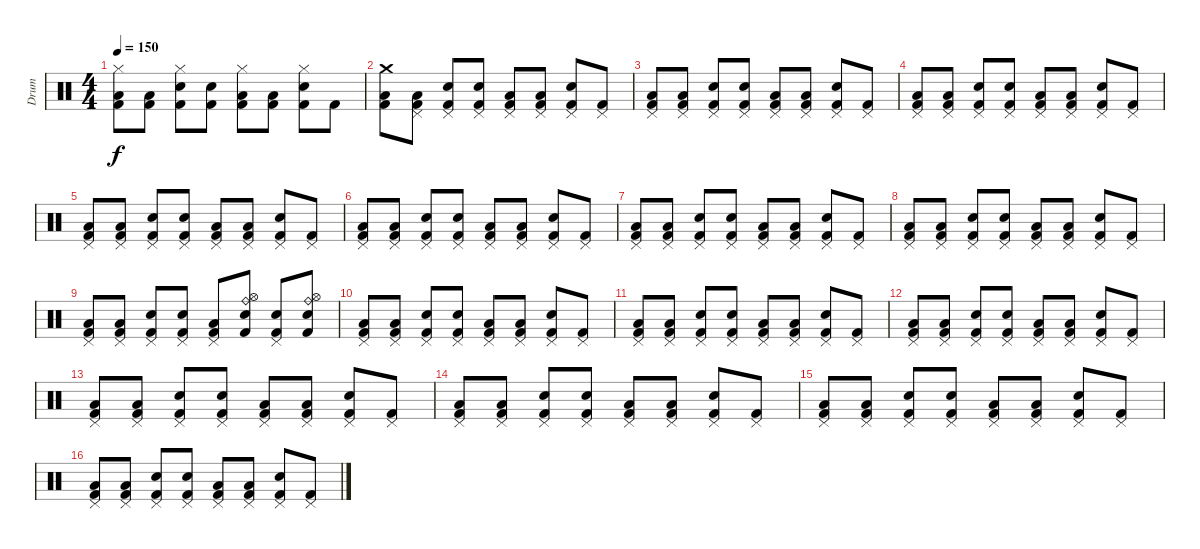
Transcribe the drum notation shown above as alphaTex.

\track ("Drum" "Drum") {instrument percussion}
\staff {score}
\articulation defaults
\ts (4 4)
\tempo 150
\clef neutral
\ks c
("Hi-Hat (closed)" "Low Floor Tom (hit)" "Kick (hit) 2").8{dy f} ("Low Floor Tom (hit)" "Kick (hit) 2").8 ("Hi-Hat (closed)" "Snare (hit) 2" "Kick (hit) 2").8 ("Snare (hit) 2" "Kick (hit) 2").8 ("Hi-Hat (closed)" "Low Floor Tom (hit)" "Kick (hit) 2").8 ("Low Floor Tom (hit)" "Kick (hit) 2").8 ("Hi-Hat (closed)" "Snare (hit) 2" "Kick (hit) 2").8 "Kick (hit) 2".8 |
("Crash medium (hit)" "Low Floor Tom (hit)" "Kick (hit) 2").8 ("Pedal Hi-Hat (hit)" "Low Floor Tom (hit)" "Kick (hit) 2").8 ("Pedal Hi-Hat (hit)" "Snare (hit) 2" "Kick (hit) 2").8 ("Pedal Hi-Hat (hit)" "Snare (hit) 2" "Kick (hit) 2").8 ("Pedal Hi-Hat (hit)" "Low Floor Tom (hit)" "Kick (hit) 2").8 ("Pedal Hi-Hat (hit)" "Low Floor Tom (hit)" "Kick (hit) 2").8 ("Pedal Hi-Hat (hit)" "Snare (hit) 2" "Kick (hit) 2").8 ("Pedal Hi-Hat (hit)" "Kick (hit) 2").8 |
("Pedal Hi-Hat (hit)" "Low Floor Tom (hit)" "Kick (hit) 2").8 ("Pedal Hi-Hat (hit)" "Low Floor Tom (hit)" "Kick (hit) 2").8 ("Pedal Hi-Hat (hit)" "Snare (hit) 2" "Kick (hit) 2").8 ("Pedal Hi-Hat (hit)" "Snare (hit) 2" "Kick (hit) 2").8 ("Pedal Hi-Hat (hit)" "Low Floor Tom (hit)" "Kick (hit) 2").8 ("Pedal Hi-Hat (hit)" "Low Floor Tom (hit)" "Kick (hit) 2").8 ("Pedal Hi-Hat (hit)" "Snare (hit) 2" "Kick (hit) 2").8 ("Pedal Hi-Hat (hit)" "Kick (hit) 2").8 |
("Pedal Hi-Hat (hit)" "Low Floor Tom (hit)" "Kick (hit) 2").8 ("Pedal Hi-Hat (hit)" "Low Floor Tom (hit)" "Kick (hit) 2").8 ("Pedal Hi-Hat (hit)" "Snare (hit) 2" "Kick (hit) 2").8 ("Pedal Hi-Hat (hit)" "Snare (hit) 2" "Kick (hit) 2").8 ("Pedal Hi-Hat (hit)" "Low Floor Tom (hit)" "Kick (hit) 2").8 ("Pedal Hi-Hat (hit)" "Low Floor Tom (hit)" "Kick (hit) 2").8 ("Pedal Hi-Hat (hit)" "Snare (hit) 2" "Kick (hit) 2").8 ("Pedal Hi-Hat (hit)" "Kick (hit) 2").8 |
("Pedal Hi-Hat (hit)" "Low Floor Tom (hit)" "Kick (hit) 2").8 ("Pedal Hi-Hat (hit)" "Low Floor Tom (hit)" "Kick (hit) 2").8 ("Pedal Hi-Hat (hit)" "Snare (hit) 2" "Kick (hit) 2").8 ("Pedal Hi-Hat (hit)" "Snare (hit) 2" "Kick (hit) 2").8 ("Pedal Hi-Hat (hit)" "Low Floor Tom (hit)" "Kick (hit) 2").8 ("Pedal Hi-Hat (hit)" "Low Floor Tom (hit)" "Kick (hit) 2").8 ("Pedal Hi-Hat (hit)" "Snare (hit) 2" "Kick (hit) 2").8 ("Pedal Hi-Hat (hit)" "Kick (hit) 2").8 |
("Pedal Hi-Hat (hit)" "Low Floor Tom (hit)" "Kick (hit) 2").8 ("Pedal Hi-Hat (hit)" "Low Floor Tom (hit)" "Kick (hit) 2").8 ("Pedal Hi-Hat (hit)" "Snare (hit) 2" "Kick (hit) 2").8 ("Pedal Hi-Hat (hit)" "Snare (hit) 2" "Kick (hit) 2").8 ("Pedal Hi-Hat (hit)" "Low Floor Tom (hit)" "Kick (hit) 2").8 ("Pedal Hi-Hat (hit)" "Low Floor Tom (hit)" "Kick (hit) 2").8 ("Pedal Hi-Hat (hit)" "Snare (hit) 2" "Kick (hit) 2").8 ("Pedal Hi-Hat (hit)" "Kick (hit) 2").8 |
("Pedal Hi-Hat (hit)" "Low Floor Tom (hit)" "Kick (hit) 2").8 ("Pedal Hi-Hat (hit)" "Low Floor Tom (hit)" "Kick (hit) 2").8 ("Pedal Hi-Hat (hit)" "Snare (hit) 2" "Kick (hit) 2").8 ("Pedal Hi-Hat (hit)" "Snare (hit) 2" "Kick (hit) 2").8 ("Pedal Hi-Hat (hit)" "Low Floor Tom (hit)" "Kick (hit) 2").8 ("Pedal Hi-Hat (hit)" "Low Floor Tom (hit)" "Kick (hit) 2").8 ("Pedal Hi-Hat (hit)" "Snare (hit) 2" "Kick (hit) 2").8 ("Pedal Hi-Hat (hit)" "Kick (hit) 2").8 |
("Pedal Hi-Hat (hit)" "Low Floor Tom (hit)" "Kick (hit) 2").8 ("Pedal Hi-Hat (hit)" "Low Floor Tom (hit)" "Kick (hit) 2").8 ("Pedal Hi-Hat (hit)" "Snare (hit) 2" "Kick (hit) 2").8 ("Pedal Hi-Hat (hit)" "Snare (hit) 2" "Kick (hit) 2").8 ("Pedal Hi-Hat (hit)" "Low Floor Tom (hit)" "Kick (hit) 2").8 ("Pedal Hi-Hat (hit)" "Low Floor Tom (hit)" "Kick (hit) 2").8 ("Pedal Hi-Hat (hit)" "Snare (hit) 2" "Kick (hit) 2").8 ("Pedal Hi-Hat (hit)" "Kick (hit) 2").8 |
("Pedal Hi-Hat (hit)" "Low Floor Tom (hit)" "Kick (hit) 2").8 ("Pedal Hi-Hat (hit)" "Low Floor Tom (hit)" "Kick (hit) 2").8 ("Pedal Hi-Hat (hit)" "Snare (hit) 2" "Kick (hit) 2").8 ("Pedal Hi-Hat (hit)" "Snare (hit) 2" "Kick (hit) 2").8 ("Pedal Hi-Hat (hit)" "Low Floor Tom (hit)" "Kick (hit) 2").8 ("Ride (bell)" "Hi-Hat (open)" "Electric Snare (hit)" "Kick (hit) 2").8 ("Pedal Hi-Hat (hit)" "Snare (hit) 2" "Kick (hit) 2").8 ("Ride (bell)" "Hi-Hat (open)" "Electric Snare (hit)" "Kick (hit) 2").8 |
("Pedal Hi-Hat (hit)" "Low Floor Tom (hit)" "Kick (hit) 2").8 ("Pedal Hi-Hat (hit)" "Low Floor Tom (hit)" "Kick (hit) 2").8 ("Pedal Hi-Hat (hit)" "Snare (hit) 2" "Kick (hit) 2").8 ("Pedal Hi-Hat (hit)" "Snare (hit) 2" "Kick (hit) 2").8 ("Pedal Hi-Hat (hit)" "Low Floor Tom (hit)" "Kick (hit) 2").8 ("Pedal Hi-Hat (hit)" "Low Floor Tom (hit)" "Kick (hit) 2").8 ("Pedal Hi-Hat (hit)" "Snare (hit) 2" "Kick (hit) 2").8 ("Pedal Hi-Hat (hit)" "Kick (hit) 2").8 |
("Pedal Hi-Hat (hit)" "Low Floor Tom (hit)" "Kick (hit) 2").8 ("Pedal Hi-Hat (hit)" "Low Floor Tom (hit)" "Kick (hit) 2").8 ("Pedal Hi-Hat (hit)" "Snare (hit) 2" "Kick (hit) 2").8 ("Pedal Hi-Hat (hit)" "Snare (hit) 2" "Kick (hit) 2").8 ("Pedal Hi-Hat (hit)" "Low Floor Tom (hit)" "Kick (hit) 2").8 ("Pedal Hi-Hat (hit)" "Low Floor Tom (hit)" "Kick (hit) 2").8 ("Pedal Hi-Hat (hit)" "Snare (hit) 2" "Kick (hit) 2").8 ("Pedal Hi-Hat (hit)" "Kick (hit) 2").8 |
("Pedal Hi-Hat (hit)" "Low Floor Tom (hit)" "Kick (hit) 2").8 ("Pedal Hi-Hat (hit)" "Low Floor Tom (hit)" "Kick (hit) 2").8 ("Pedal Hi-Hat (hit)" "Snare (hit) 2" "Kick (hit) 2").8 ("Pedal Hi-Hat (hit)" "Snare (hit) 2" "Kick (hit) 2").8 ("Pedal Hi-Hat (hit)" "Low Floor Tom (hit)" "Kick (hit) 2").8 ("Pedal Hi-Hat (hit)" "Low Floor Tom (hit)" "Kick (hit) 2").8 ("Pedal Hi-Hat (hit)" "Snare (hit) 2" "Kick (hit) 2").8 ("Pedal Hi-Hat (hit)" "Kick (hit) 2").8 |
("Pedal Hi-Hat (hit)" "Low Floor Tom (hit)" "Kick (hit) 2").8 ("Pedal Hi-Hat (hit)" "Low Floor Tom (hit)" "Kick (hit) 2").8 ("Pedal Hi-Hat (hit)" "Snare (hit) 2" "Kick (hit) 2").8 ("Pedal Hi-Hat (hit)" "Snare (hit) 2" "Kick (hit) 2").8 ("Pedal Hi-Hat (hit)" "Low Floor Tom (hit)" "Kick (hit) 2").8 ("Pedal Hi-Hat (hit)" "Low Floor Tom (hit)" "Kick (hit) 2").8 ("Pedal Hi-Hat (hit)" "Snare (hit) 2" "Kick (hit) 2").8 ("Pedal Hi-Hat (hit)" "Kick (hit) 2").8 |
("Pedal Hi-Hat (hit)" "Low Floor Tom (hit)" "Kick (hit) 2").8 ("Pedal Hi-Hat (hit)" "Low Floor Tom (hit)" "Kick (hit) 2").8 ("Pedal Hi-Hat (hit)" "Snare (hit) 2" "Kick (hit) 2").8 ("Pedal Hi-Hat (hit)" "Snare (hit) 2" "Kick (hit) 2").8 ("Pedal Hi-Hat (hit)" "Low Floor Tom (hit)" "Kick (hit) 2").8 ("Pedal Hi-Hat (hit)" "Low Floor Tom (hit)" "Kick (hit) 2").8 ("Pedal Hi-Hat (hit)" "Snare (hit) 2" "Kick (hit) 2").8 ("Pedal Hi-Hat (hit)" "Kick (hit) 2").8 |
("Pedal Hi-Hat (hit)" "Low Floor Tom (hit)" "Kick (hit) 2").8 ("Pedal Hi-Hat (hit)" "Low Floor Tom (hit)" "Kick (hit) 2").8 ("Pedal Hi-Hat (hit)" "Snare (hit) 2" "Kick (hit) 2").8 ("Pedal Hi-Hat (hit)" "Snare (hit) 2" "Kick (hit) 2").8 ("Pedal Hi-Hat (hit)" "Low Floor Tom (hit)" "Kick (hit) 2").8 ("Pedal Hi-Hat (hit)" "Low Floor Tom (hit)" "Kick (hit) 2").8 ("Pedal Hi-Hat (hit)" "Snare (hit) 2" "Kick (hit) 2").8 ("Pedal Hi-Hat (hit)" "Kick (hit) 2").8 |
("Pedal Hi-Hat (hit)" "Low Floor Tom (hit)" "Kick (hit) 2").8 ("Pedal Hi-Hat (hit)" "Low Floor Tom (hit)" "Kick (hit) 2").8 ("Pedal Hi-Hat (hit)" "Snare (hit) 2" "Kick (hit) 2").8 ("Pedal Hi-Hat (hit)" "Snare (hit) 2" "Kick (hit) 2").8 ("Pedal Hi-Hat (hit)" "Low Floor Tom (hit)" "Kick (hit) 2").8 ("Pedal Hi-Hat (hit)" "Low Floor Tom (hit)" "Kick (hit) 2").8 ("Pedal Hi-Hat (hit)" "Snare (hit) 2" "Kick (hit) 2").8 ("Pedal Hi-Hat (hit)" "Kick (hit) 2").8
